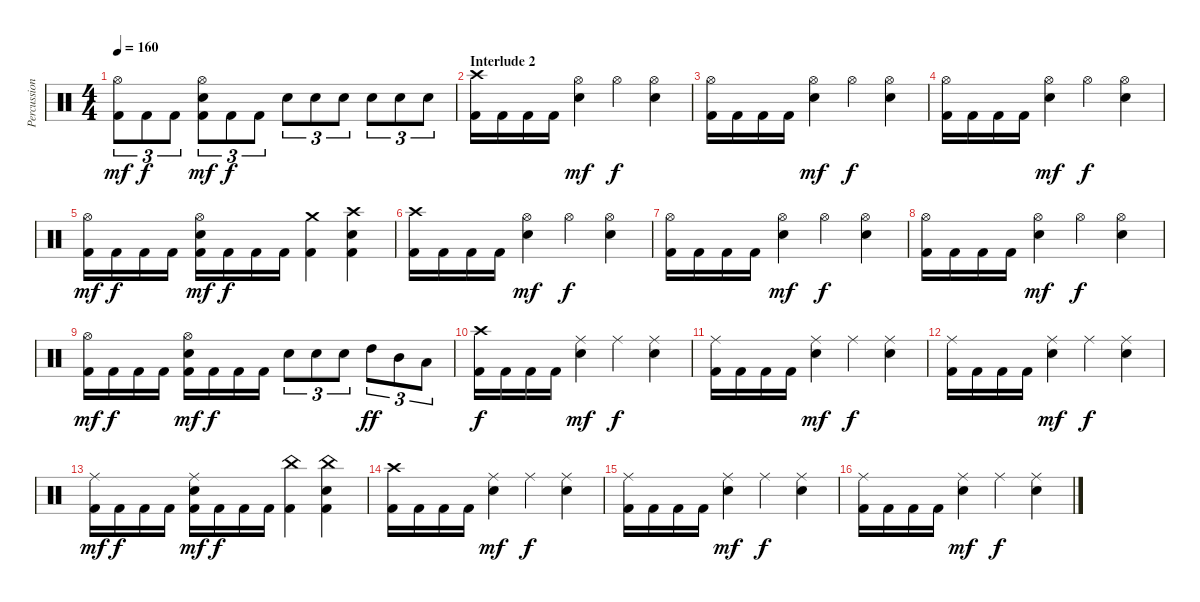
\track ("Percussion" "Percussion") {instrument percussion}
\staff {score}
\articulation defaults
\ts (4 4)
\tempo 160
\clef neutral
\ks c
("Hi-Hat (open)" "Kick (hit) 2").8{tu (3 2) dy mf} "Kick (hit) 2".8{tu (3 2) dy f} "Kick (hit) 2".8{tu (3 2)} ("Hi-Hat (open)" "Electric Snare (hit)" "Kick (hit) 2").8{tu (3 2) dy mf} "Kick (hit) 2".8{tu (3 2) dy f} "Kick (hit) 2".8{tu (3 2)} "Electric Snare (hit)".8{tu (3 2)} "Electric Snare (hit)".8{tu (3 2)} "Electric Snare (hit)".8{tu (3 2)} "Electric Snare (hit)".8{tu (3 2)} "Electric Snare (hit)".8{tu (3 2)} "Electric Snare (hit)".8{tu (3 2)} |
\section ("" "Interlude 2")
("Crash high (hit)" "Kick (hit) 2").16 "Kick (hit) 2".16 "Kick (hit) 2".16 "Kick (hit) 2".16 ("Hi-Hat (open)" "Electric Snare (hit)").4{dy mf} "Hi-Hat (open)".4{dy f} ("Hi-Hat (open)" "Electric Snare (hit)").4 |
("Hi-Hat (open)" "Kick (hit) 2").16 "Kick (hit) 2".16 "Kick (hit) 2".16 "Kick (hit) 2".16 ("Hi-Hat (open)" "Electric Snare (hit)").4{dy mf} "Hi-Hat (open)".4{dy f} ("Hi-Hat (open)" "Electric Snare (hit)").4 |
("Hi-Hat (open)" "Kick (hit) 2").16 "Kick (hit) 2".16 "Kick (hit) 2".16 "Kick (hit) 2".16 ("Hi-Hat (open)" "Electric Snare (hit)").4{dy mf} "Hi-Hat (open)".4{dy f} ("Hi-Hat (open)" "Electric Snare (hit)").4 |
("Hi-Hat (open)" "Kick (hit) 2").16{dy mf} "Kick (hit) 2".16{dy f} "Kick (hit) 2".16 "Kick (hit) 2".16 ("Hi-Hat (open)" "Electric Snare (hit)" "Kick (hit) 2").16{dy mf} "Kick (hit) 2".16{dy f} "Kick (hit) 2".16 "Kick (hit) 2".16 ("Crash medium (hit)" "Kick (hit) 2").4 ("Crash high (hit)" "Electric Snare (hit)" "Kick (hit) 2").4 |
("Crash high (hit)" "Kick (hit) 2").16 "Kick (hit) 2".16 "Kick (hit) 2".16 "Kick (hit) 2".16 ("Hi-Hat (open)" "Electric Snare (hit)").4{dy mf} "Hi-Hat (open)".4{dy f} ("Hi-Hat (open)" "Electric Snare (hit)").4 |
("Hi-Hat (open)" "Kick (hit) 2").16 "Kick (hit) 2".16 "Kick (hit) 2".16 "Kick (hit) 2".16 ("Hi-Hat (open)" "Electric Snare (hit)").4{dy mf} "Hi-Hat (open)".4{dy f} ("Hi-Hat (open)" "Electric Snare (hit)").4 |
("Hi-Hat (open)" "Kick (hit) 2").16 "Kick (hit) 2".16 "Kick (hit) 2".16 "Kick (hit) 2".16 ("Hi-Hat (open)" "Electric Snare (hit)").4{dy mf} "Hi-Hat (open)".4{dy f} ("Hi-Hat (open)" "Electric Snare (hit)").4 |
("Hi-Hat (open)" "Kick (hit) 2").16{dy mf} "Kick (hit) 2".16{dy f} "Kick (hit) 2".16 "Kick (hit) 2".16 ("Hi-Hat (open)" "Electric Snare (hit)" "Kick (hit) 2").16{dy mf} "Kick (hit) 2".16{dy f} "Kick (hit) 2".16 "Kick (hit) 2".16 "Electric Snare (hit)".8{tu (3 2)} "Electric Snare (hit)".8{tu (3 2)} "Electric Snare (hit)".8{tu (3 2)} "High Tom (hit)".8{tu (3 2) dy ff} "Mid Tom (hit)".8{tu (3 2)} "Low Tom (hit)".8{tu (3 2)} |
("Crash high (hit)" "Kick (hit) 2").16{dy f} "Kick (hit) 2".16 "Kick (hit) 2".16 "Kick (hit) 2".16 ("Ride (middle)" "Electric Snare (hit)").4{dy mf} "Ride (middle)".4{dy f} ("Ride (middle)" "Electric Snare (hit)").4 |
("Ride (middle)" "Kick (hit) 2").16 "Kick (hit) 2".16 "Kick (hit) 2".16 "Kick (hit) 2".16 ("Ride (middle)" "Electric Snare (hit)").4{dy mf} "Ride (middle)".4{dy f} ("Ride (middle)" "Electric Snare (hit)").4 |
("Ride (middle)" "Kick (hit) 2").16 "Kick (hit) 2".16 "Kick (hit) 2".16 "Kick (hit) 2".16 ("Ride (middle)" "Electric Snare (hit)").4{dy mf} "Ride (middle)".4{dy f} ("Ride (middle)" "Electric Snare (hit)").4 |
("Ride (middle)" "Kick (hit) 2").16{dy mf} "Kick (hit) 2".16{dy f} "Kick (hit) 2".16 "Kick (hit) 2".16 ("Ride (middle)" "Electric Snare (hit)" "Kick (hit) 2").16{dy mf} "Kick (hit) 2".16{dy f} "Kick (hit) 2".16 "Kick (hit) 2".16 ("China (hit)" "Kick (hit) 2").4 ("China (hit)" "Electric Snare (hit)" "Kick (hit) 2").4 |
("Crash high (hit)" "Kick (hit) 2").16 "Kick (hit) 2".16 "Kick (hit) 2".16 "Kick (hit) 2".16 ("Ride (middle)" "Electric Snare (hit)").4{dy mf} "Ride (middle)".4{dy f} ("Ride (middle)" "Electric Snare (hit)").4 |
("Ride (middle)" "Kick (hit) 2").16 "Kick (hit) 2".16 "Kick (hit) 2".16 "Kick (hit) 2".16 ("Ride (middle)" "Electric Snare (hit)").4{dy mf} "Ride (middle)".4{dy f} ("Ride (middle)" "Electric Snare (hit)").4 |
("Ride (middle)" "Kick (hit) 2").16 "Kick (hit) 2".16 "Kick (hit) 2".16 "Kick (hit) 2".16 ("Ride (middle)" "Electric Snare (hit)").4{dy mf} "Ride (middle)".4{dy f} ("Ride (middle)" "Electric Snare (hit)").4
